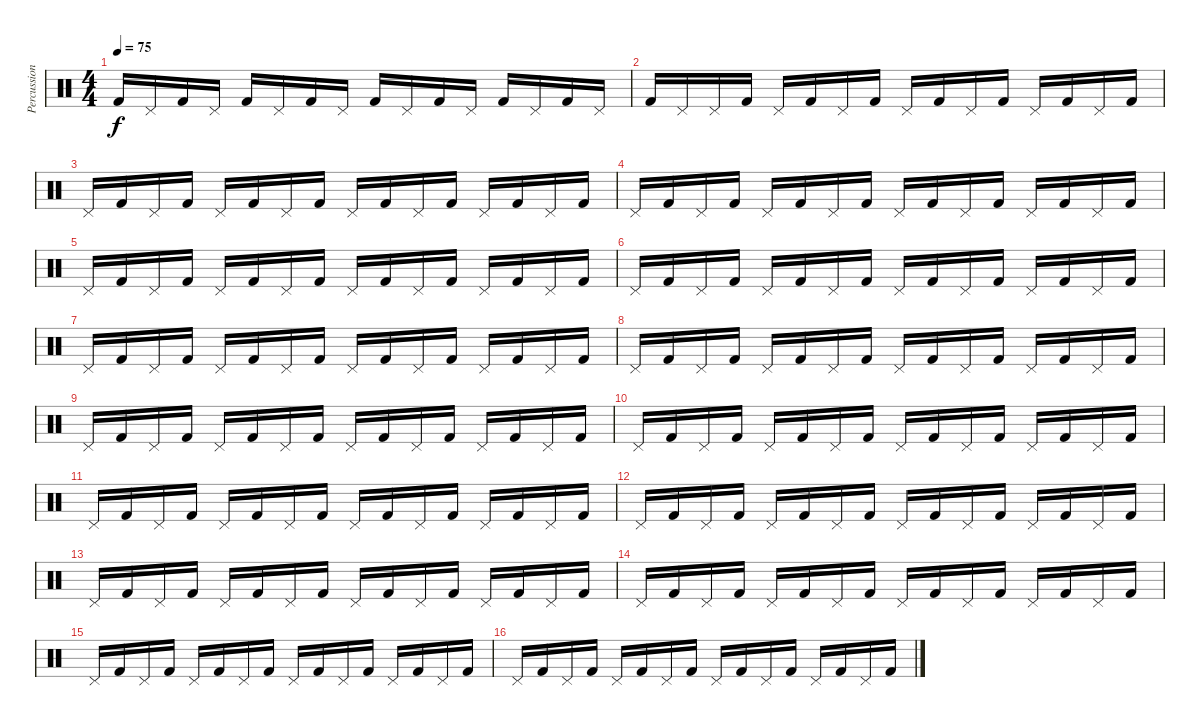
\track ("Percussions" "Percussion") {instrument percussion}
\staff {score}
\articulation defaults
\ts (4 4)
\tempo 75
\clef neutral
\ks c "Kick (hit) 2".16{dy f} "Pedal Hi-Hat (hit)".16 "Kick (hit) 2".16 "Pedal Hi-Hat (hit)".16 "Kick (hit) 2".16 "Pedal Hi-Hat (hit)".16 "Kick (hit) 2".16 "Pedal Hi-Hat (hit)".16 "Kick (hit) 2".16 "Pedal Hi-Hat (hit)".16 "Kick (hit) 2".16 "Pedal Hi-Hat (hit)".16 "Kick (hit) 2".16 "Pedal Hi-Hat (hit)".16 "Kick (hit) 2".16 "Pedal Hi-Hat (hit)".16
|
"Kick (hit) 2".16 "Pedal Hi-Hat (hit)".16 "Pedal Hi-Hat (hit)".16 "Kick (hit) 2".16 "Pedal Hi-Hat (hit)".16 "Kick (hit) 2".16 "Pedal Hi-Hat (hit)".16 "Kick (hit) 2".16 "Pedal Hi-Hat (hit)".16 "Kick (hit) 2".16 "Pedal Hi-Hat (hit)".16 "Kick (hit) 2".16 "Pedal Hi-Hat (hit)".16 "Kick (hit) 2".16 "Pedal Hi-Hat (hit)".16 "Kick (hit) 2".16 |
"Pedal Hi-Hat (hit)".16 "Kick (hit) 2".16 "Pedal Hi-Hat (hit)".16 "Kick (hit) 2".16 "Pedal Hi-Hat (hit)".16 "Kick (hit) 2".16 "Pedal Hi-Hat (hit)".16 "Kick (hit) 2".16 "Pedal Hi-Hat (hit)".16 "Kick (hit) 2".16 "Pedal Hi-Hat (hit)".16 "Kick (hit) 2".16 "Pedal Hi-Hat (hit)".16 "Kick (hit) 2".16 "Pedal Hi-Hat (hit)".16 "Kick (hit) 2".16 |
"Pedal Hi-Hat (hit)".16 "Kick (hit) 2".16 "Pedal Hi-Hat (hit)".16 "Kick (hit) 2".16 "Pedal Hi-Hat (hit)".16 "Kick (hit) 2".16 "Pedal Hi-Hat (hit)".16 "Kick (hit) 2".16 "Pedal Hi-Hat (hit)".16 "Kick (hit) 2".16 "Pedal Hi-Hat (hit)".16 "Kick (hit) 2".16 "Pedal Hi-Hat (hit)".16 "Kick (hit) 2".16 "Pedal Hi-Hat (hit)".16 "Kick (hit) 2".16 |
"Pedal Hi-Hat (hit)".16 "Kick (hit) 2".16 "Pedal Hi-Hat (hit)".16 "Kick (hit) 2".16 "Pedal Hi-Hat (hit)".16 "Kick (hit) 2".16 "Pedal Hi-Hat (hit)".16 "Kick (hit) 2".16 "Pedal Hi-Hat (hit)".16 "Kick (hit) 2".16 "Pedal Hi-Hat (hit)".16 "Kick (hit) 2".16 "Pedal Hi-Hat (hit)".16 "Kick (hit) 2".16 "Pedal Hi-Hat (hit)".16 "Kick (hit) 2".16 |
"Pedal Hi-Hat (hit)".16 "Kick (hit) 2".16 "Pedal Hi-Hat (hit)".16 "Kick (hit) 2".16 "Pedal Hi-Hat (hit)".16 "Kick (hit) 2".16 "Pedal Hi-Hat (hit)".16 "Kick (hit) 2".16 "Pedal Hi-Hat (hit)".16 "Kick (hit) 2".16 "Pedal Hi-Hat (hit)".16 "Kick (hit) 2".16 "Pedal Hi-Hat (hit)".16 "Kick (hit) 2".16 "Pedal Hi-Hat (hit)".16 "Kick (hit) 2".16 |
"Pedal Hi-Hat (hit)".16 "Kick (hit) 2".16 "Pedal Hi-Hat (hit)".16 "Kick (hit) 2".16 "Pedal Hi-Hat (hit)".16 "Kick (hit) 2".16 "Pedal Hi-Hat (hit)".16 "Kick (hit) 2".16 "Pedal Hi-Hat (hit)".16 "Kick (hit) 2".16 "Pedal Hi-Hat (hit)".16 "Kick (hit) 2".16 "Pedal Hi-Hat (hit)".16 "Kick (hit) 2".16 "Pedal Hi-Hat (hit)".16 "Kick (hit) 2".16 |
"Pedal Hi-Hat (hit)".16 "Kick (hit) 2".16 "Pedal Hi-Hat (hit)".16 "Kick (hit) 2".16 "Pedal Hi-Hat (hit)".16 "Kick (hit) 2".16 "Pedal Hi-Hat (hit)".16 "Kick (hit) 2".16 "Pedal Hi-Hat (hit)".16 "Kick (hit) 2".16 "Pedal Hi-Hat (hit)".16 "Kick (hit) 2".16 "Pedal Hi-Hat (hit)".16 "Kick (hit) 2".16 "Pedal Hi-Hat (hit)".16 "Kick (hit) 2".16 |
"Pedal Hi-Hat (hit)".16 "Kick (hit) 2".16 "Pedal Hi-Hat (hit)".16 "Kick (hit) 2".16 "Pedal Hi-Hat (hit)".16 "Kick (hit) 2".16 "Pedal Hi-Hat (hit)".16 "Kick (hit) 2".16 "Pedal Hi-Hat (hit)".16 "Kick (hit) 2".16 "Pedal Hi-Hat (hit)".16 "Kick (hit) 2".16 "Pedal Hi-Hat (hit)".16 "Kick (hit) 2".16 "Pedal Hi-Hat (hit)".16 "Kick (hit) 2".16 |
"Pedal Hi-Hat (hit)".16 "Kick (hit) 2".16 "Pedal Hi-Hat (hit)".16 "Kick (hit) 2".16 "Pedal Hi-Hat (hit)".16 "Kick (hit) 2".16 "Pedal Hi-Hat (hit)".16 "Kick (hit) 2".16 "Pedal Hi-Hat (hit)".16 "Kick (hit) 2".16 "Pedal Hi-Hat (hit)".16 "Kick (hit) 2".16 "Pedal Hi-Hat (hit)".16 "Kick (hit) 2".16 "Pedal Hi-Hat (hit)".16 "Kick (hit) 2".16 |
"Pedal Hi-Hat (hit)".16 "Kick (hit) 2".16 "Pedal Hi-Hat (hit)".16 "Kick (hit) 2".16 "Pedal Hi-Hat (hit)".16 "Kick (hit) 2".16 "Pedal Hi-Hat (hit)".16 "Kick (hit) 2".16 "Pedal Hi-Hat (hit)".16 "Kick (hit) 2".16 "Pedal Hi-Hat (hit)".16 "Kick (hit) 2".16 "Pedal Hi-Hat (hit)".16 "Kick (hit) 2".16 "Pedal Hi-Hat (hit)".16 "Kick (hit) 2".16 |
"Pedal Hi-Hat (hit)".16 "Kick (hit) 2".16 "Pedal Hi-Hat (hit)".16 "Kick (hit) 2".16 "Pedal Hi-Hat (hit)".16 "Kick (hit) 2".16 "Pedal Hi-Hat (hit)".16 "Kick (hit) 2".16 "Pedal Hi-Hat (hit)".16 "Kick (hit) 2".16 "Pedal Hi-Hat (hit)".16 "Kick (hit) 2".16 "Pedal Hi-Hat (hit)".16 "Kick (hit) 2".16 "Pedal Hi-Hat (hit)".16 "Kick (hit) 2".16 |
"Pedal Hi-Hat (hit)".16 "Kick (hit) 2".16 "Pedal Hi-Hat (hit)".16 "Kick (hit) 2".16 "Pedal Hi-Hat (hit)".16 "Kick (hit) 2".16 "Pedal Hi-Hat (hit)".16 "Kick (hit) 2".16 "Pedal Hi-Hat (hit)".16 "Kick (hit) 2".16 "Pedal Hi-Hat (hit)".16 "Kick (hit) 2".16 "Pedal Hi-Hat (hit)".16 "Kick (hit) 2".16 "Pedal Hi-Hat (hit)".16 "Kick (hit) 2".16 |
"Pedal Hi-Hat (hit)".16 "Kick (hit) 2".16 "Pedal Hi-Hat (hit)".16 "Kick (hit) 2".16 "Pedal Hi-Hat (hit)".16 "Kick (hit) 2".16 "Pedal Hi-Hat (hit)".16 "Kick (hit) 2".16 "Pedal Hi-Hat (hit)".16 "Kick (hit) 2".16 "Pedal Hi-Hat (hit)".16 "Kick (hit) 2".16 "Pedal Hi-Hat (hit)".16 "Kick (hit) 2".16 "Pedal Hi-Hat (hit)".16 "Kick (hit) 2".16 |
"Pedal Hi-Hat (hit)".16 "Kick (hit) 2".16 "Pedal Hi-Hat (hit)".16 "Kick (hit) 2".16 "Pedal Hi-Hat (hit)".16 "Kick (hit) 2".16 "Pedal Hi-Hat (hit)".16 "Kick (hit) 2".16 "Pedal Hi-Hat (hit)".16 "Kick (hit) 2".16 "Pedal Hi-Hat (hit)".16 "Kick (hit) 2".16 "Pedal Hi-Hat (hit)".16 "Kick (hit) 2".16 "Pedal Hi-Hat (hit)".16 "Kick (hit) 2".16 |
"Pedal Hi-Hat (hit)".16 "Kick (hit) 2".16 "Pedal Hi-Hat (hit)".16 "Kick (hit) 2".16 "Pedal Hi-Hat (hit)".16 "Kick (hit) 2".16 "Pedal Hi-Hat (hit)".16 "Kick (hit) 2".16 "Pedal Hi-Hat (hit)".16 "Kick (hit) 2".16 "Pedal Hi-Hat (hit)".16 "Kick (hit) 2".16 "Pedal Hi-Hat (hit)".16 "Kick (hit) 2".16 "Pedal Hi-Hat (hit)".16 "Kick (hit) 2".16
